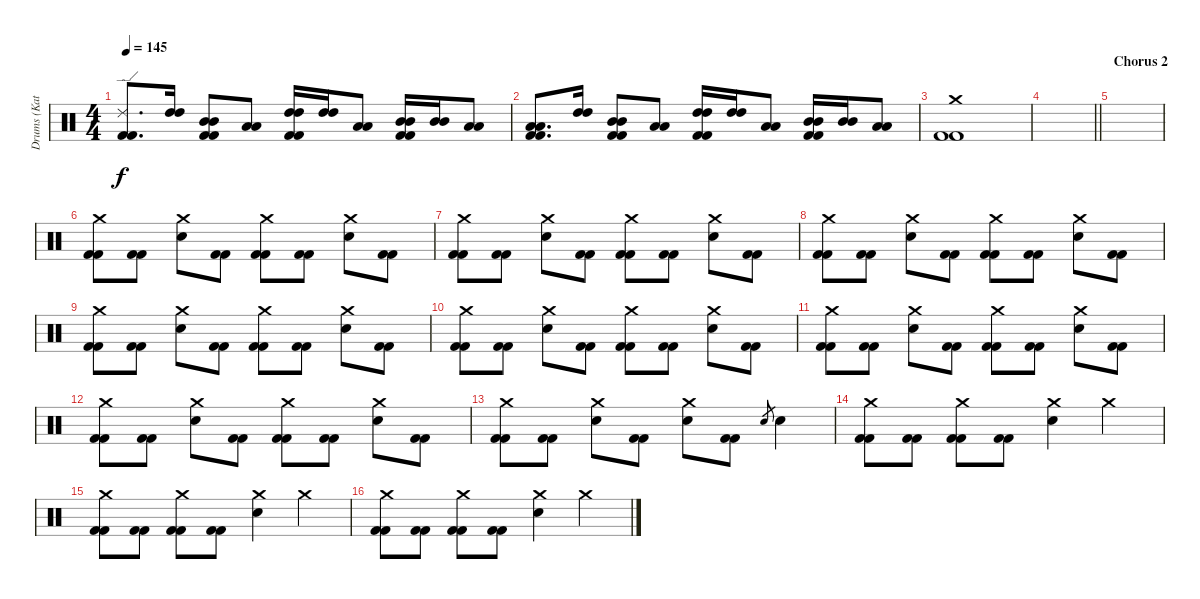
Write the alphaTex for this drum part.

\track ("Drums (Katsuma)" "Drums (Kat") {instrument percussion}
\staff {score}
\articulation defaults
\ts (4 4)
\tempo 145
\clef neutral
\ks c
("Ride (edge) 2" "Kick (hit) 2" "Kick (hit) 2").8{d dy f} ("High Tom (hit)" "High Tom (hit)").16 ("Mid Tom (hit)" "Mid Tom (hit)" "Kick (hit) 2" "Kick (hit) 2").8 ("Low Tom (hit)" "Low Tom (hit)").8 ("High Tom (hit)" "High Tom (hit)" "Kick (hit) 2" "Kick (hit) 2").16 ("High Tom (hit)" "High Tom (hit)").16 ("Low Tom (hit)" "Low Tom (hit)").8 ("Mid Tom (hit)" "Mid Tom (hit)" "Kick (hit) 2" "Kick (hit) 2").16 ("Mid Tom (hit)" "Mid Tom (hit)").16 ("Low Tom (hit)" "Low Tom (hit)").8 |
("Low Tom (hit)" "Low Tom (hit)" "Kick (hit) 2" "Kick (hit) 2").8{d} ("High Tom (hit)" "High Tom (hit)").16 ("Mid Tom (hit)" "Mid Tom (hit)" "Kick (hit) 2" "Kick (hit) 2").8 ("Low Tom (hit)" "Low Tom (hit)").8 ("High Tom (hit)" "High Tom (hit)" "Kick (hit) 2" "Kick (hit) 2").16 ("High Tom (hit)" "High Tom (hit)").16 ("Low Tom (hit)" "Low Tom (hit)").8 ("Mid Tom (hit)" "Mid Tom (hit)" "Kick (hit) 2" "Kick (hit) 2").16 ("Mid Tom (hit)" "Mid Tom (hit)").16 ("Low Tom (hit)" "Low Tom (hit)").8 |
("Crash medium (hit)" "Kick (hit) 2" "Kick (hit) 2").1 |
\barLineRight lightlight
|
\section ("" "Chorus 2")
|
("Crash medium (hit)" "Kick (hit) 2" "Kick (hit) 2").8 ("Kick (hit) 2" "Kick (hit) 2").8 ("Crash medium (hit)" "Electric Snare (hit)").8 ("Kick (hit) 2" "Kick (hit) 2").8 ("Crash medium (hit)" "Kick (hit) 2" "Kick (hit) 2").8 ("Kick (hit) 2" "Kick (hit) 2").8 ("Crash medium (hit)" "Electric Snare (hit)").8 ("Kick (hit) 2" "Kick (hit) 2").8 |
("Crash medium (hit)" "Kick (hit) 2" "Kick (hit) 2").8 ("Kick (hit) 2" "Kick (hit) 2").8 ("Crash medium (hit)" "Electric Snare (hit)").8 ("Kick (hit) 2" "Kick (hit) 2").8 ("Crash medium (hit)" "Kick (hit) 2" "Kick (hit) 2").8 ("Kick (hit) 2" "Kick (hit) 2").8 ("Crash medium (hit)" "Electric Snare (hit)").8 ("Kick (hit) 2" "Kick (hit) 2").8 |
("Crash medium (hit)" "Kick (hit) 2" "Kick (hit) 2").8 ("Kick (hit) 2" "Kick (hit) 2").8 ("Crash medium (hit)" "Electric Snare (hit)").8 ("Kick (hit) 2" "Kick (hit) 2").8 ("Crash medium (hit)" "Kick (hit) 2" "Kick (hit) 2").8 ("Kick (hit) 2" "Kick (hit) 2").8 ("Crash medium (hit)" "Electric Snare (hit)").8 ("Kick (hit) 2" "Kick (hit) 2").8 |
("Crash medium (hit)" "Kick (hit) 2" "Kick (hit) 2").8 ("Kick (hit) 2" "Kick (hit) 2").8 ("Crash medium (hit)" "Electric Snare (hit)").8 ("Kick (hit) 2" "Kick (hit) 2").8 ("Crash medium (hit)" "Kick (hit) 2" "Kick (hit) 2").8 ("Kick (hit) 2" "Kick (hit) 2").8 ("Crash medium (hit)" "Electric Snare (hit)").8 ("Kick (hit) 2" "Kick (hit) 2").8 |
("Crash medium (hit)" "Kick (hit) 2" "Kick (hit) 2").8 ("Kick (hit) 2" "Kick (hit) 2").8 ("Crash medium (hit)" "Electric Snare (hit)").8 ("Kick (hit) 2" "Kick (hit) 2").8 ("Crash medium (hit)" "Kick (hit) 2" "Kick (hit) 2").8 ("Kick (hit) 2" "Kick (hit) 2").8 ("Crash medium (hit)" "Electric Snare (hit)").8 ("Kick (hit) 2" "Kick (hit) 2").8 |
("Crash medium (hit)" "Kick (hit) 2" "Kick (hit) 2").8 ("Kick (hit) 2" "Kick (hit) 2").8 ("Crash medium (hit)" "Electric Snare (hit)").8 ("Kick (hit) 2" "Kick (hit) 2").8 ("Crash medium (hit)" "Kick (hit) 2" "Kick (hit) 2").8 ("Kick (hit) 2" "Kick (hit) 2").8 ("Crash medium (hit)" "Electric Snare (hit)").8 ("Kick (hit) 2" "Kick (hit) 2").8 |
("Crash medium (hit)" "Kick (hit) 2" "Kick (hit) 2").8 ("Kick (hit) 2" "Kick (hit) 2").8 ("Crash medium (hit)" "Electric Snare (hit)").8 ("Kick (hit) 2" "Kick (hit) 2").8 ("Crash medium (hit)" "Kick (hit) 2" "Kick (hit) 2").8 ("Kick (hit) 2" "Kick (hit) 2").8 ("Crash medium (hit)" "Electric Snare (hit)").8 ("Kick (hit) 2" "Kick (hit) 2").8 |
("Crash medium (hit)" "Kick (hit) 2" "Kick (hit) 2").8 ("Kick (hit) 2" "Kick (hit) 2").8 ("Crash medium (hit)" "Electric Snare (hit)").8 ("Kick (hit) 2" "Kick (hit) 2").8 ("Crash medium (hit)" "Electric Snare (hit)").8 ("Kick (hit) 2" "Kick (hit) 2").8 "Electric Snare (hit)".8{gr} "Electric Snare (hit)".4 |
("Crash medium (hit)" "Kick (hit) 2" "Kick (hit) 2").8 ("Kick (hit) 2" "Kick (hit) 2").8 ("Crash medium (hit)" "Kick (hit) 2" "Kick (hit) 2").8 ("Kick (hit) 2" "Kick (hit) 2").8 ("Crash medium (hit)" "Electric Snare (hit)").4 "Crash medium (hit)".4 |
("Crash medium (hit)" "Kick (hit) 2" "Kick (hit) 2").8 ("Kick (hit) 2" "Kick (hit) 2").8 ("Crash medium (hit)" "Kick (hit) 2" "Kick (hit) 2").8 ("Kick (hit) 2" "Kick (hit) 2").8 ("Crash medium (hit)" "Electric Snare (hit)").4 "Crash medium (hit)".4 |
("Crash medium (hit)" "Kick (hit) 2" "Kick (hit) 2").8 ("Kick (hit) 2" "Kick (hit) 2").8 ("Crash medium (hit)" "Kick (hit) 2" "Kick (hit) 2").8 ("Kick (hit) 2" "Kick (hit) 2").8 ("Crash medium (hit)" "Electric Snare (hit)").4 "Crash medium (hit)".4
